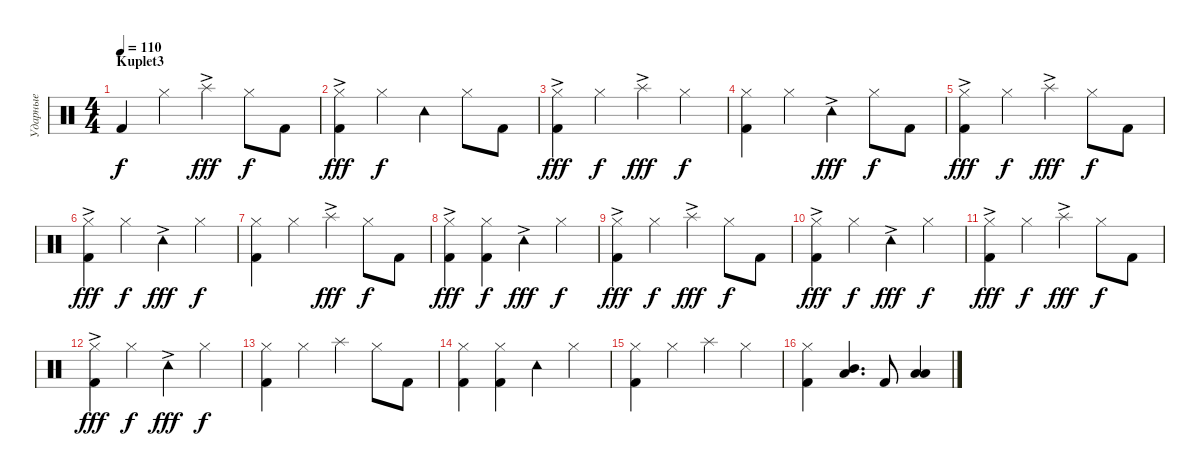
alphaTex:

\track ("Ударные" "Ударные") {instrument percussion}
\staff {score}
\articulation defaults
\ts (4 4)
\section ("" "Kuplet3")
\tempo 110
\clef neutral
\ks c "Kick (hit) 2".4{dy f} "Hi-Hat (closed)".4 "Splash (hit)"{ac}.4{dy fff} "Hi-Hat (closed)".8{dy f} "Kick (hit) 2".8
|
("Hi-Hat (closed)"{ac} "Kick (hit) 2").4{dy fff} "Hi-Hat (closed)".4{dy f} "Tambourine (hit)".4 "Hi-Hat (closed)".8 "Kick (hit) 2".8 |
("Hi-Hat (closed)"{ac} "Kick (hit) 2").4{dy fff} "Hi-Hat (closed)".4{dy f} "Splash (hit)"{ac}.4{dy fff} "Hi-Hat (closed)".4{dy f} |
("Kick (hit) 2" "Hi-Hat (closed)").4 "Hi-Hat (closed)".4 "Tambourine (hit)"{ac}.4{dy fff} "Hi-Hat (closed)".8{dy f} "Kick (hit) 2".8 |
("Hi-Hat (closed)"{ac} "Kick (hit) 2").4{dy fff} "Hi-Hat (closed)".4{dy f} "Splash (hit)"{ac}.4{dy fff} "Hi-Hat (closed)".8{dy f} "Kick (hit) 2".8 |
("Hi-Hat (closed)"{ac} "Kick (hit) 2").4{dy fff} "Hi-Hat (closed)".4{dy f} "Tambourine (hit)"{ac}.4{dy fff} "Hi-Hat (closed)".4{dy f} |
("Kick (hit) 2" "Hi-Hat (closed)").4 "Hi-Hat (closed)".4 "Splash (hit)"{ac}.4{dy fff} "Hi-Hat (closed)".8{dy f} "Kick (hit) 2".8 |
("Hi-Hat (closed)"{ac} "Kick (hit) 2").4{dy fff} ("Hi-Hat (closed)" "Kick (hit) 2").4{dy f} "Tambourine (hit)"{ac}.4{dy fff} "Hi-Hat (closed)".4{dy f} |
("Hi-Hat (closed)"{ac} "Kick (hit) 2").4{dy fff} "Hi-Hat (closed)".4{dy f} "Splash (hit)"{ac}.4{dy fff} "Hi-Hat (closed)".8{dy f} "Kick (hit) 2".8 |
("Hi-Hat (closed)" "Kick (hit) 2"{ac}).4{dy fff} "Hi-Hat (closed)".4{dy f} "Tambourine (hit)"{ac}.4{dy fff} "Hi-Hat (closed)".4{dy f} |
("Kick (hit) 2" "Hi-Hat (closed)"{ac}).4{dy fff} "Hi-Hat (closed)".4{dy f} "Splash (hit)"{ac}.4{dy fff} "Hi-Hat (closed)".8{dy f} "Kick (hit) 2".8 |
("Hi-Hat (closed)"{ac} "Kick (hit) 2").4{dy fff} "Hi-Hat (closed)".4{dy f} "Tambourine (hit)"{ac}.4{dy fff} "Hi-Hat (closed)".4{dy f} |
("Kick (hit) 2" "Hi-Hat (closed)").4 "Hi-Hat (closed)".4 "Splash (hit)".4 "Hi-Hat (closed)".8 "Kick (hit) 2".8 |
("Kick (hit) 2" "Hi-Hat (closed)").4 ("Kick (hit) 2" "Hi-Hat (closed)").4 "Tambourine (hit)".4 "Hi-Hat (closed)".4 |
("Hi-Hat (closed)" "Kick (hit) 2").4 "Hi-Hat (closed)".4 "Splash (hit)".4 "Hi-Hat (closed)".4 |
("Hi-Hat (closed)" "Kick (hit) 2").4 ("Mid Tom (hit)" "Low Tom (hit)").4{d} "Kick (hit) 2".8 ("Low Floor Tom (hit)" "Low Tom (hit)").4
